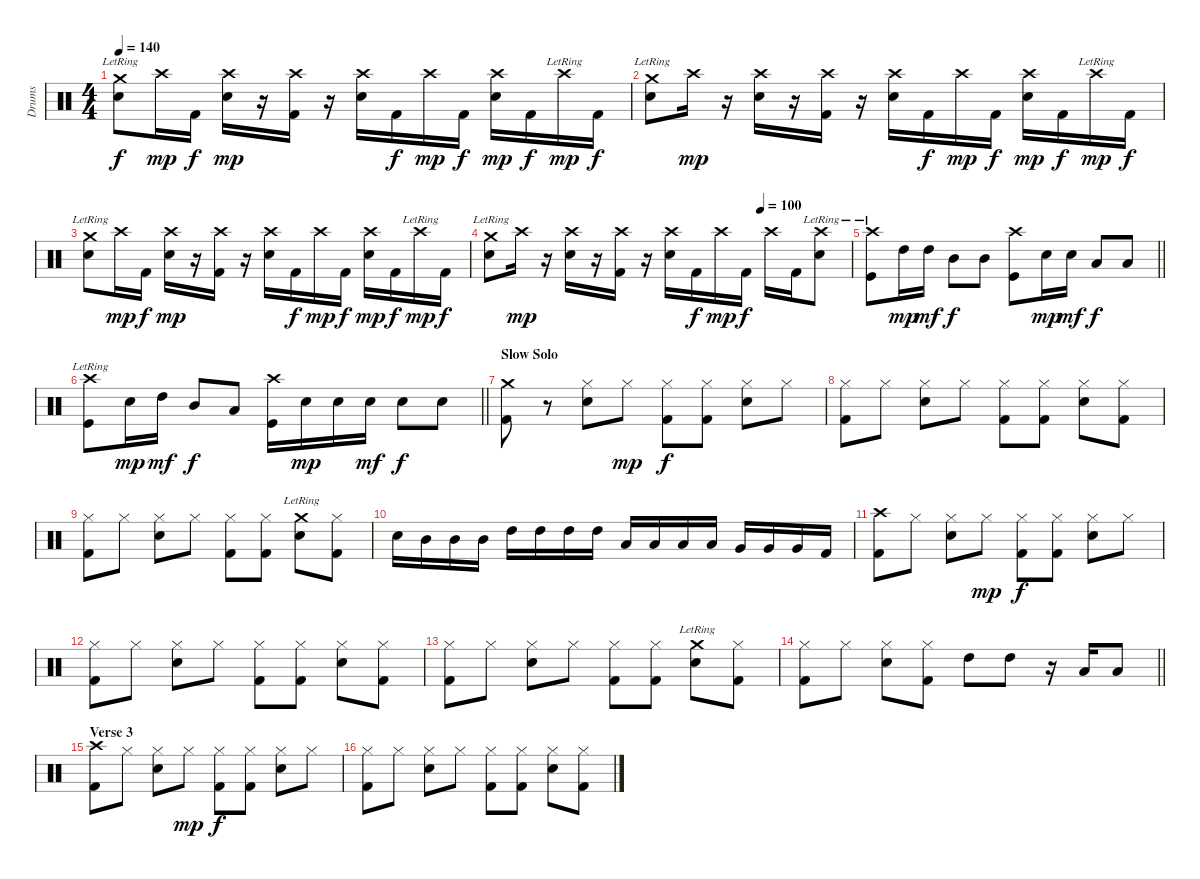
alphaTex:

\track ("Drums" "Drums") {instrument percussion}
\staff {score}
\articulation defaults
\ts (4 4)
\tempo 140
\clef neutral
\ks c
("Crash medium (hit)"{lr} "Snare (hit) 2").8{dy f} "Crash high (hit)".16{dy mp} "Kick (hit) 2".16{dy f} ("Crash high (hit)" "Snare (hit) 2").16{dy mp} r.16 ("Crash high (hit)" "Kick (hit) 2").16 r.16 ("Crash high (hit)" "Snare (hit) 2").16 "Kick (hit) 2".16{dy f} "Crash high (hit)".16{dy mp} "Kick (hit) 2".16{dy f} ("Crash high (hit)" "Snare (hit) 2").16{dy mp} "Kick (hit) 2".16{dy f} "Crash high (hit)"{lr}.16{dy mp} "Kick (hit) 2".16{dy f} |
("Crash medium (hit)"{lr} "Snare (hit) 2").8 "Crash high (hit)".16{dy mp} r.16 ("Crash high (hit)" "Snare (hit) 2").16 r.16 ("Crash high (hit)" "Kick (hit) 2").16 r.16 ("Crash high (hit)" "Snare (hit) 2").16 "Kick (hit) 2".16{dy f} "Crash high (hit)".16{dy mp} "Kick (hit) 2".16{dy f} ("Crash high (hit)" "Snare (hit) 2").16{dy mp} "Kick (hit) 2".16{dy f} "Crash high (hit)"{lr}.16{dy mp} "Kick (hit) 2".16{dy f} |
("Crash medium (hit)"{lr} "Snare (hit) 2").8 "Crash high (hit)".16{dy mp} "Kick (hit) 2".16{dy f} ("Crash high (hit)" "Snare (hit) 2").16{dy mp} r.16 ("Crash high (hit)" "Kick (hit) 2").16 r.16 ("Crash high (hit)" "Snare (hit) 2").16 "Kick (hit) 2".16{dy f} "Crash high (hit)".16{dy mp} "Kick (hit) 2".16{dy f} ("Crash high (hit)" "Snare (hit) 2").16{dy mp} "Kick (hit) 2".16{dy f} "Crash high (hit)"{lr}.16{dy mp} "Kick (hit) 2".16{dy f} |
\tempo (100 0.75)
("Crash medium (hit)"{lr} "Snare (hit) 2").8 "Crash high (hit)".16{dy mp} r.16 ("Crash high (hit)" "Snare (hit) 2").16 r.16 ("Crash high (hit)" "Kick (hit) 2").16 r.16 ("Crash high (hit)" "Snare (hit) 2").16 "Kick (hit) 2".16{dy f} "Crash high (hit)".16{dy mp} "Kick (hit) 2".16{dy f} "Crash high (hit)".16 "Kick (hit) 2".16 ("Crash high (hit)"{lr} "Snare (hit) 2").8 |
\barLineRight lightlight
("Crash high (hit)"{lr} "Kick (hit)").8 "High Tom (hit)".16{dy mp} "High Tom (hit)".16{dy mf} "Mid Tom (hit)".8{dy f} "Mid Tom (hit)".8 ("Crash high (hit)" "Kick (hit)").8 "Snare (hit) 2".16{dy mp} "Snare (hit) 2".16{dy mf} "Low Tom (hit)".8{dy f} "Low Tom (hit)".8 |
\barLineRight lightlight
("Crash high (hit)"{lr} "Kick (hit)").8 "Snare (hit) 2".16{dy mp} "High Tom (hit)".16{dy mf} "Mid Tom (hit)".8{dy f} "Low Tom (hit)".8 ("Crash high (hit)" "Kick (hit)").16 "Snare (hit) 2".16{dy mp} "Snare (hit) 2".16 "Snare (hit) 2".16{dy mf} "Snare (hit) 2".8{dy f} "Snare (hit) 2".8 |
\section ("" "Slow Solo")
("Crash medium (hit)" "Kick (hit) 2").8 r.8 ("Hi-Hat (closed)" "Snare (hit) 2").8 "Hi-Hat (closed)".8{dy mp} ("Hi-Hat (closed)" "Kick (hit) 2").8{dy f} ("Hi-Hat (closed)" "Kick (hit) 2").8 ("Hi-Hat (closed)" "Snare (hit) 2").8 "Hi-Hat (closed)".8 |
("Hi-Hat (closed)" "Kick (hit) 2").8 "Hi-Hat (closed)".8 ("Hi-Hat (closed)" "Snare (hit) 2").8 "Hi-Hat (closed)".8 ("Hi-Hat (closed)" "Kick (hit) 2").8 ("Hi-Hat (closed)" "Kick (hit) 2").8 ("Hi-Hat (closed)" "Snare (hit) 2").8 ("Hi-Hat (closed)" "Kick (hit) 2").8 |
("Hi-Hat (closed)" "Kick (hit) 2").8 "Hi-Hat (closed)".8 ("Hi-Hat (closed)" "Snare (hit) 2").8 "Hi-Hat (closed)".8 ("Hi-Hat (closed)" "Kick (hit) 2").8 ("Hi-Hat (closed)" "Kick (hit) 2").8 ("Crash medium (hit)"{lr} "Snare (hit) 2").8 ("Hi-Hat (closed)" "Kick (hit) 2").8 |
"Snare (hit) 2".16 "Mid Tom (hit)".16 "Mid Tom (hit)".16 "Mid Tom (hit)".16 "High Tom (hit)".16 "High Tom (hit)".16 "High Tom (hit)".16 "High Tom (hit)".16 "Low Tom (hit)".16 "Low Tom (hit)".16 "Low Tom (hit)".16 "Low Tom (hit)".16 "Very Low Tom (hit)".16 "Very Low Tom (hit)".16 "Very Low Tom (hit)".16 "Kick (hit) 2".16 |
("Crash high (hit)" "Kick (hit) 2").8 "Hi-Hat (closed)".8 ("Hi-Hat (closed)" "Snare (hit) 2").8 "Hi-Hat (closed)".8{dy mp} ("Hi-Hat (closed)" "Kick (hit) 2").8{dy f} ("Hi-Hat (closed)" "Kick (hit) 2").8 ("Hi-Hat (closed)" "Snare (hit) 2").8 "Hi-Hat (closed)".8 |
("Hi-Hat (closed)" "Kick (hit) 2").8 "Hi-Hat (closed)".8 ("Hi-Hat (closed)" "Snare (hit) 2").8 "Hi-Hat (closed)".8 ("Hi-Hat (closed)" "Kick (hit) 2").8 ("Hi-Hat (closed)" "Kick (hit) 2").8 ("Hi-Hat (closed)" "Snare (hit) 2").8 ("Hi-Hat (closed)" "Kick (hit) 2").8 |
("Hi-Hat (closed)" "Kick (hit) 2").8 "Hi-Hat (closed)".8 ("Hi-Hat (closed)" "Snare (hit) 2").8 "Hi-Hat (closed)".8 ("Hi-Hat (closed)" "Kick (hit) 2").8 ("Hi-Hat (closed)" "Kick (hit) 2").8 ("Crash medium (hit)"{lr} "Snare (hit) 2").8 ("Hi-Hat (closed)" "Kick (hit) 2").8 |
\barLineRight lightlight
("Hi-Hat (closed)" "Kick (hit) 2").8 "Hi-Hat (closed)".8 ("Hi-Hat (closed)" "Snare (hit) 2").8 ("Hi-Hat (closed)" "Kick (hit) 2").8 "High Tom (hit)".8 "High Tom (hit)".8 r.16 "Low Tom (hit)".16 "Low Tom (hit)".8 |
\section ("" "Verse 3")
("Crash high (hit)" "Kick (hit) 2").8 "Hi-Hat (closed)".8 ("Hi-Hat (closed)" "Snare (hit) 2").8 "Hi-Hat (closed)".8{dy mp} ("Hi-Hat (closed)" "Kick (hit) 2").8{dy f} ("Hi-Hat (closed)" "Kick (hit) 2").8 ("Hi-Hat (closed)" "Snare (hit) 2").8 "Hi-Hat (closed)".8 |
("Hi-Hat (closed)" "Kick (hit) 2").8 "Hi-Hat (closed)".8 ("Hi-Hat (closed)" "Snare (hit) 2").8 "Hi-Hat (closed)".8 ("Hi-Hat (closed)" "Kick (hit) 2").8 ("Hi-Hat (closed)" "Kick (hit) 2").8 ("Hi-Hat (closed)" "Snare (hit) 2").8 ("Hi-Hat (closed)" "Kick (hit) 2").8
